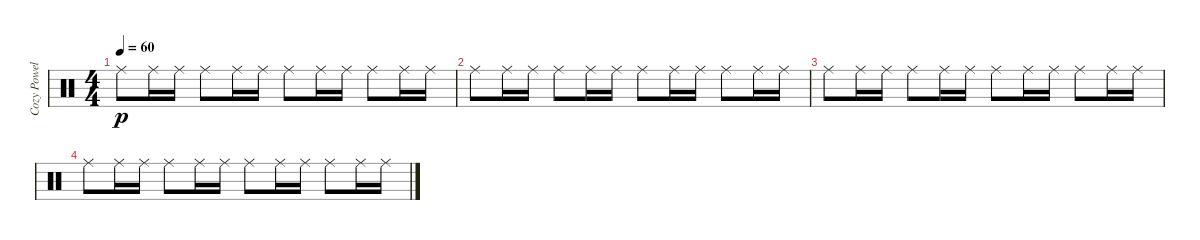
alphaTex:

\track ("Cozy Powell(Drums)" "Cozy Powel") {instrument percussion}
\staff {score}
\articulation defaults
\ts (4 4)
\tempo 60
\clef neutral
\ks c "Ride (middle)".8{dy p} "Ride (middle)".16 "Ride (middle)".16 "Ride (middle)".8 "Ride (middle)".16 "Ride (middle)".16 "Ride (middle)".8 "Ride (middle)".16 "Ride (middle)".16 "Ride (middle)".8 "Ride (middle)".16 "Ride (middle)".16
|
"Ride (middle)".8 "Ride (middle)".16 "Ride (middle)".16 "Ride (middle)".8 "Ride (middle)".16 "Ride (middle)".16 "Ride (middle)".8 "Ride (middle)".16 "Ride (middle)".16 "Ride (middle)".8 "Ride (middle)".16 "Ride (middle)".16 |
"Ride (middle)".8 "Ride (middle)".16 "Ride (middle)".16 "Ride (middle)".8 "Ride (middle)".16 "Ride (middle)".16 "Ride (middle)".8 "Ride (middle)".16 "Ride (middle)".16 "Ride (middle)".8 "Ride (middle)".16 "Ride (middle)".16 |
"Ride (middle)".8 "Ride (middle)".16 "Ride (middle)".16 "Ride (middle)".8 "Ride (middle)".16 "Ride (middle)".16 "Ride (middle)".8 "Ride (middle)".16 "Ride (middle)".16 "Ride (middle)".8 "Ride (middle)".16 "Ride (middle)".16
